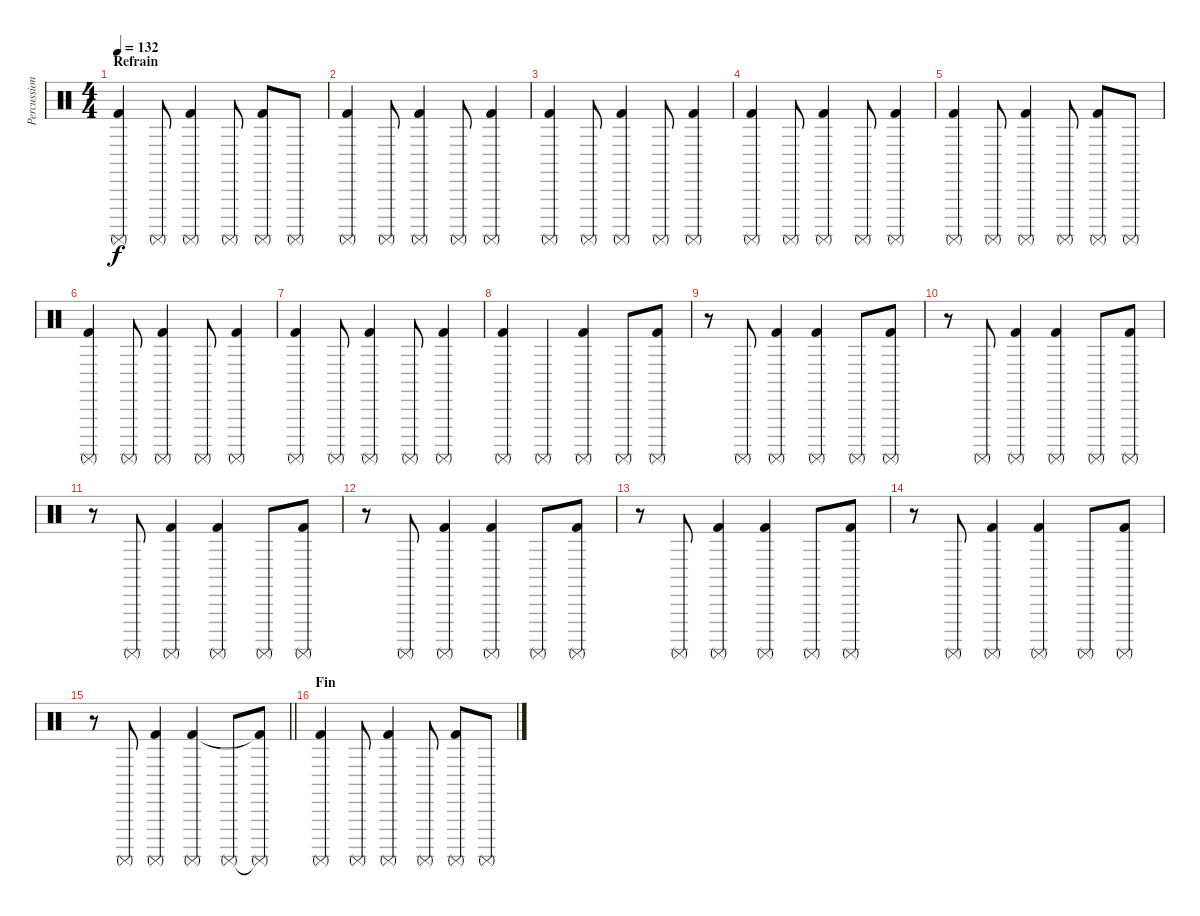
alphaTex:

\track ("Percussion" "Percussion") {instrument percussion}
\staff {score}
\articulation defaults
\ts (4 4)
\section ("" "Refrain")
\tempo 132
\clef neutral
\ks c
("Surdo (mute)" "Kick (hit) 2").4{dy f} "Surdo (mute)".8 ("Surdo (mute)" "Kick (hit) 2").4 "Surdo (mute)".8 ("Surdo (mute)" "Kick (hit) 2").8 "Surdo (mute)".8 |
("Surdo (mute)" "Kick (hit) 2").4 "Surdo (mute)".8 ("Surdo (mute)" "Kick (hit) 2").4 "Surdo (mute)".8 ("Surdo (mute)" "Kick (hit) 2").4 |
("Surdo (mute)" "Kick (hit) 2").4 "Surdo (mute)".8 ("Surdo (mute)" "Kick (hit) 2").4 "Surdo (mute)".8 ("Surdo (mute)" "Kick (hit) 2").4 |
("Surdo (mute)" "Kick (hit) 2").4 "Surdo (mute)".8 ("Surdo (mute)" "Kick (hit) 2").4 "Surdo (mute)".8 ("Surdo (mute)" "Kick (hit) 2").4 |
("Surdo (mute)" "Kick (hit) 2").4 "Surdo (mute)".8 ("Surdo (mute)" "Kick (hit) 2").4 "Surdo (mute)".8 ("Surdo (mute)" "Kick (hit) 2").8 "Surdo (mute)".8 |
("Surdo (mute)" "Kick (hit) 2").4 "Surdo (mute)".8 ("Surdo (mute)" "Kick (hit) 2").4 "Surdo (mute)".8 ("Surdo (mute)" "Kick (hit) 2").4 |
("Surdo (mute)" "Kick (hit) 2").4 "Surdo (mute)".8 ("Surdo (mute)" "Kick (hit) 2").4 "Surdo (mute)".8 ("Surdo (mute)" "Kick (hit) 2").4 |
("Surdo (mute)" "Kick (hit) 2").4 "Surdo (mute)".4 ("Surdo (mute)" "Kick (hit) 2").4 "Surdo (mute)".8 ("Surdo (mute)" "Kick (hit) 2").8 |
r.8 "Surdo (mute)".8 ("Surdo (mute)" "Kick (hit) 2").4 ("Surdo (mute)" "Kick (hit) 2").4 "Surdo (mute)".8 ("Surdo (mute)" "Kick (hit) 2").8 |
r.8 "Surdo (mute)".8 ("Surdo (mute)" "Kick (hit) 2").4 ("Surdo (mute)" "Kick (hit) 2").4 "Surdo (mute)".8 ("Surdo (mute)" "Kick (hit) 2").8 |
r.8 "Surdo (mute)".8 ("Surdo (mute)" "Kick (hit) 2").4 ("Surdo (mute)" "Kick (hit) 2").4 "Surdo (mute)".8 ("Surdo (mute)" "Kick (hit) 2").8 |
r.8 "Surdo (mute)".8 ("Surdo (mute)" "Kick (hit) 2").4 ("Surdo (mute)" "Kick (hit) 2").4 "Surdo (mute)".8 ("Surdo (mute)" "Kick (hit) 2").8 |
r.8 "Surdo (mute)".8 ("Surdo (mute)" "Kick (hit) 2").4 ("Surdo (mute)" "Kick (hit) 2").4 "Surdo (mute)".8 ("Surdo (mute)" "Kick (hit) 2").8 |
r.8 "Surdo (mute)".8 ("Surdo (mute)" "Kick (hit) 2").4 ("Surdo (mute)" "Kick (hit) 2").4 "Surdo (mute)".8 ("Surdo (mute)" "Kick (hit) 2").8 |
\barLineRight lightlight
r.8 "Surdo (mute)".8 ("Surdo (mute)" "Kick (hit) 2").4 ("Surdo (mute)" "Kick (hit) 2").4 "Surdo (mute)".8 ("Surdo (mute)"{t} "Kick (hit) 2"{t}).8 |
\section ("" "Fin")
("Surdo (mute)" "Kick (hit) 2").4 "Surdo (mute)".8 ("Surdo (mute)" "Kick (hit) 2").4 "Surdo (mute)".8 ("Surdo (mute)" "Kick (hit) 2").8 "Surdo (mute)".8
